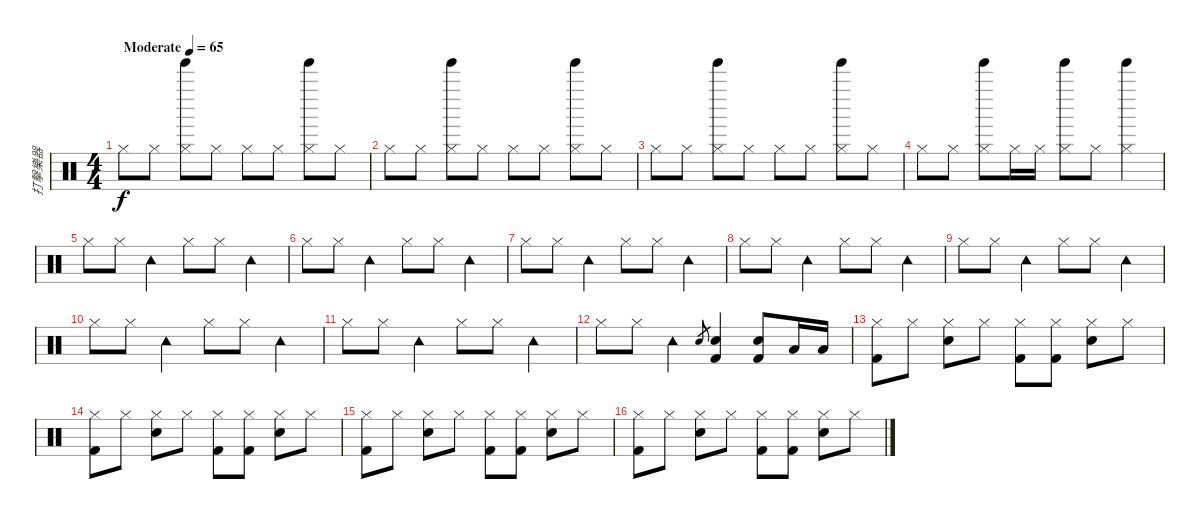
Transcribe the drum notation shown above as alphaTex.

\track ("打擊樂器" "打擊樂器") {instrument percussion}
\staff {score}
\articulation defaults
\ts (4 4)
\tempo (65 "Moderate")
\clef neutral
\ks c "Hi-Hat (closed)".8{dy f} "Hi-Hat (closed)".8
("Tinkle Bell (hit)" "Hi-Hat (closed)").8 "Hi-Hat (closed)".8 "Hi-Hat (closed)".8 "Hi-Hat (closed)".8 ("Tinkle Bell (hit)" "Hi-Hat (closed)").8 "Hi-Hat (closed)".8 |
"Hi-Hat (closed)".8 "Hi-Hat (closed)".8 ("Tinkle Bell (hit)" "Hi-Hat (closed)").8 "Hi-Hat (closed)".8 "Hi-Hat (closed)".8 "Hi-Hat (closed)".8 ("Tinkle Bell (hit)" "Hi-Hat (closed)").8 "Hi-Hat (closed)".8 |
"Hi-Hat (closed)".8 "Hi-Hat (closed)".8 ("Tinkle Bell (hit)" "Hi-Hat (closed)").8 "Hi-Hat (closed)".8 "Hi-Hat (closed)".8 "Hi-Hat (closed)".8 ("Tinkle Bell (hit)" "Hi-Hat (closed)").8 "Hi-Hat (closed)".8 |
"Hi-Hat (closed)".8 "Hi-Hat (closed)".8 ("Tinkle Bell (hit)" "Hi-Hat (closed)").8 "Hi-Hat (closed)".16 "Hi-Hat (closed)".16 ("Tinkle Bell (hit)" "Hi-Hat (closed)").8 "Hi-Hat (closed)".8 ("Tinkle Bell (hit)" "Hi-Hat (closed)").4 |
"Hi-Hat (closed)".8 "Hi-Hat (closed)".8 "Tambourine (hit)".4 "Hi-Hat (closed)".8 "Hi-Hat (closed)".8 "Tambourine (hit)".4 |
"Hi-Hat (closed)".8 "Hi-Hat (closed)".8 "Tambourine (hit)".4 "Hi-Hat (closed)".8 "Hi-Hat (closed)".8 "Tambourine (hit)".4 |
"Hi-Hat (closed)".8 "Hi-Hat (closed)".8 "Tambourine (hit)".4 "Hi-Hat (closed)".8 "Hi-Hat (closed)".8 "Tambourine (hit)".4 |
"Hi-Hat (closed)".8 "Hi-Hat (closed)".8 "Tambourine (hit)".4 "Hi-Hat (closed)".8 "Hi-Hat (closed)".8 "Tambourine (hit)".4 |
"Hi-Hat (closed)".8 "Hi-Hat (closed)".8 "Tambourine (hit)".4 "Hi-Hat (closed)".8 "Hi-Hat (closed)".8 "Tambourine (hit)".4 |
"Hi-Hat (closed)".8 "Hi-Hat (closed)".8 "Tambourine (hit)".4 "Hi-Hat (closed)".8 "Hi-Hat (closed)".8 "Tambourine (hit)".4 |
"Hi-Hat (closed)".8 "Hi-Hat (closed)".8 "Tambourine (hit)".4 "Hi-Hat (closed)".8 "Hi-Hat (closed)".8 "Tambourine (hit)".4 |
"Hi-Hat (closed)".8 "Hi-Hat (closed)".8 "Tambourine (hit)".4 "Snare (hit) 2".8{gr} ("Kick (hit) 2" "Snare (hit) 2").4 ("Kick (hit) 2" "Snare (hit) 2").8 "Low Floor Tom (hit)".16 "Low Floor Tom (hit)".16 |
("Kick (hit) 2" "Hi-Hat (closed)").8 "Hi-Hat (closed)".8 ("Snare (hit) 2" "Hi-Hat (closed)").8 "Hi-Hat (closed)".8 ("Kick (hit) 2" "Hi-Hat (closed)").8 ("Kick (hit) 2" "Hi-Hat (closed)").8 ("Snare (hit) 2" "Hi-Hat (closed)").8 "Hi-Hat (closed)".8 |
("Kick (hit) 2" "Hi-Hat (closed)").8 "Hi-Hat (closed)".8 ("Snare (hit) 2" "Hi-Hat (closed)").8 "Hi-Hat (closed)".8 ("Kick (hit) 2" "Hi-Hat (closed)").8 ("Kick (hit) 2" "Hi-Hat (closed)").8 ("Snare (hit) 2" "Hi-Hat (closed)").8 "Hi-Hat (closed)".8 |
("Kick (hit) 2" "Hi-Hat (closed)").8 "Hi-Hat (closed)".8 ("Snare (hit) 2" "Hi-Hat (closed)").8 "Hi-Hat (closed)".8 ("Kick (hit) 2" "Hi-Hat (closed)").8 ("Kick (hit) 2" "Hi-Hat (closed)").8 ("Snare (hit) 2" "Hi-Hat (closed)").8 "Hi-Hat (closed)".8 |
("Kick (hit) 2" "Hi-Hat (closed)").8 "Hi-Hat (closed)".8 ("Snare (hit) 2" "Hi-Hat (closed)").8 "Hi-Hat (closed)".8 ("Kick (hit) 2" "Hi-Hat (closed)").8 ("Kick (hit) 2" "Hi-Hat (closed)").8 ("Snare (hit) 2" "Hi-Hat (closed)").8 "Hi-Hat (closed)".8
